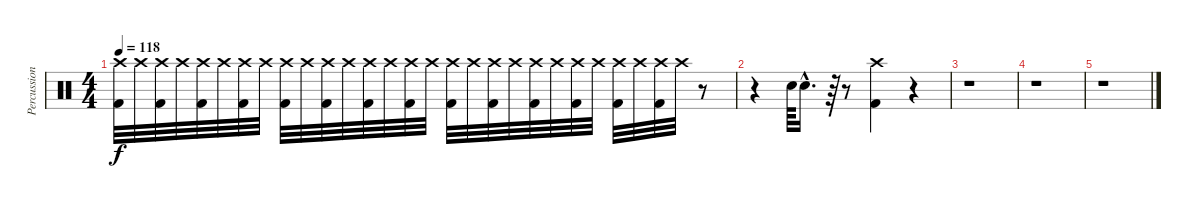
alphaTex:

\track ("Percussion" "Percussion") {instrument percussion}
\staff {score}
\articulation defaults
\ts (4 4)
\tempo 118
\clef neutral
\ks c
("Crash high (hit)" "Kick (hit) 2").32{dy f} "Crash high (hit)".32 ("Crash high (hit)" "Kick (hit) 2").32 "Crash high (hit)".32 ("Crash high (hit)" "Kick (hit) 2").32 "Crash high (hit)".32 ("Crash high (hit)" "Kick (hit) 2").32 "Crash high (hit)".32 ("Crash high (hit)" "Kick (hit) 2").32 "Crash high (hit)".32 ("Crash high (hit)" "Kick (hit) 2").32 "Crash high (hit)".32 ("Crash high (hit)" "Kick (hit) 2").32 "Crash high (hit)".32 ("Crash high (hit)" "Kick (hit) 2").32 "Crash high (hit)".32 ("Crash high (hit)" "Kick (hit) 2").32 "Crash high (hit)".32 ("Crash high (hit)" "Kick (hit) 2").32 "Crash high (hit)".32 ("Crash high (hit)" "Kick (hit) 2").32 "Crash high (hit)".32 ("Crash high (hit)" "Kick (hit) 2").32 "Crash high (hit)".32 ("Crash high (hit)" "Kick (hit) 2").32 "Crash high (hit)".32 ("Crash high (hit)" "Kick (hit) 2").32 "Crash high (hit)".32 r.8 |
r.4 "Snare (hit) 2".64 "Snare (hit) 2"{hac}.16{d} r.64 r.8 ("Crash high (hit)" "Kick (hit) 2").4 r.4 |
r.1 |
r.1 |
r.1
